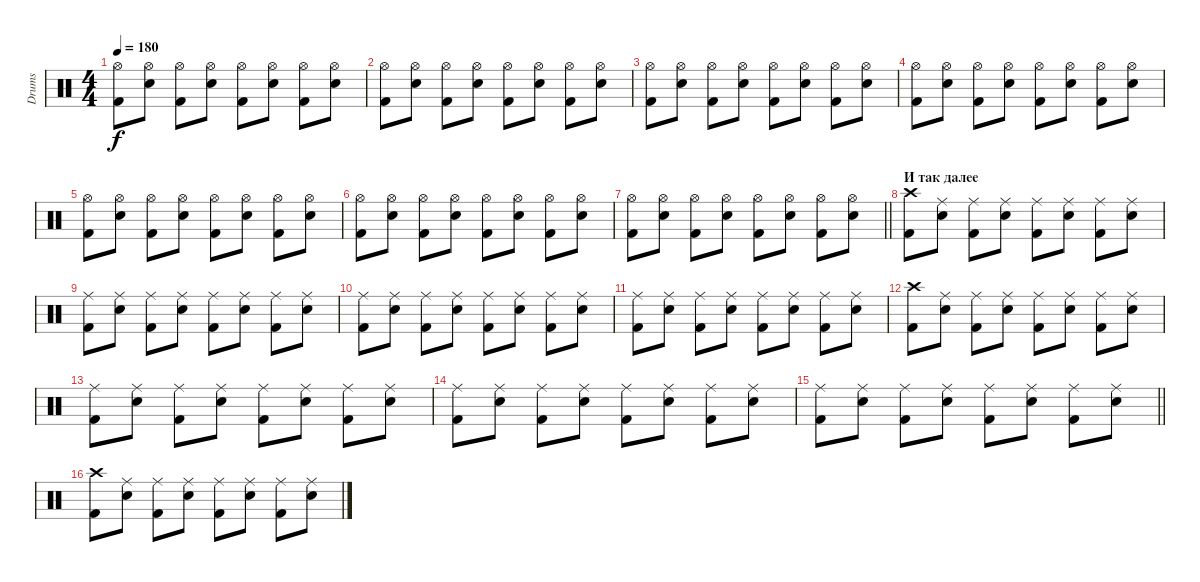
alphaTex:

\track ("Drums" "Drums") {instrument percussion}
\staff {score}
\articulation defaults
\ts (4 4)
\tempo 180
\clef neutral
\ks c
("Hi-Hat (open)" "Kick (hit) 2").8{dy f} ("Hi-Hat (open)" "Snare (hit) 2").8 ("Hi-Hat (open)" "Kick (hit) 2").8 ("Hi-Hat (open)" "Snare (hit) 2").8 ("Hi-Hat (open)" "Kick (hit) 2").8 ("Hi-Hat (open)" "Snare (hit) 2").8 ("Hi-Hat (open)" "Kick (hit) 2").8 ("Hi-Hat (open)" "Snare (hit) 2").8 |
("Hi-Hat (open)" "Kick (hit) 2").8 ("Hi-Hat (open)" "Snare (hit) 2").8 ("Hi-Hat (open)" "Kick (hit) 2").8 ("Hi-Hat (open)" "Snare (hit) 2").8 ("Hi-Hat (open)" "Kick (hit) 2").8 ("Hi-Hat (open)" "Snare (hit) 2").8 ("Hi-Hat (open)" "Kick (hit) 2").8 ("Hi-Hat (open)" "Snare (hit) 2").8 |
("Hi-Hat (open)" "Kick (hit) 2").8 ("Hi-Hat (open)" "Snare (hit) 2").8 ("Hi-Hat (open)" "Kick (hit) 2").8 ("Hi-Hat (open)" "Snare (hit) 2").8 ("Hi-Hat (open)" "Kick (hit) 2").8 ("Hi-Hat (open)" "Snare (hit) 2").8 ("Hi-Hat (open)" "Kick (hit) 2").8 ("Hi-Hat (open)" "Snare (hit) 2").8 |
("Hi-Hat (open)" "Kick (hit) 2").8 ("Hi-Hat (open)" "Snare (hit) 2").8 ("Hi-Hat (open)" "Kick (hit) 2").8 ("Hi-Hat (open)" "Snare (hit) 2").8 ("Hi-Hat (open)" "Kick (hit) 2").8 ("Hi-Hat (open)" "Snare (hit) 2").8 ("Hi-Hat (open)" "Kick (hit) 2").8 ("Hi-Hat (open)" "Snare (hit) 2").8 |
("Hi-Hat (open)" "Kick (hit) 2").8 ("Hi-Hat (open)" "Snare (hit) 2").8 ("Hi-Hat (open)" "Kick (hit) 2").8 ("Hi-Hat (open)" "Snare (hit) 2").8 ("Hi-Hat (open)" "Kick (hit) 2").8 ("Hi-Hat (open)" "Snare (hit) 2").8 ("Hi-Hat (open)" "Kick (hit) 2").8 ("Hi-Hat (open)" "Snare (hit) 2").8 |
("Hi-Hat (open)" "Kick (hit) 2").8 ("Hi-Hat (open)" "Snare (hit) 2").8 ("Hi-Hat (open)" "Kick (hit) 2").8 ("Hi-Hat (open)" "Snare (hit) 2").8 ("Hi-Hat (open)" "Kick (hit) 2").8 ("Hi-Hat (open)" "Snare (hit) 2").8 ("Hi-Hat (open)" "Kick (hit) 2").8 ("Hi-Hat (open)" "Snare (hit) 2").8 |
\barLineRight lightlight
("Hi-Hat (open)" "Kick (hit) 2").8 ("Hi-Hat (open)" "Snare (hit) 2").8 ("Hi-Hat (open)" "Kick (hit) 2").8 ("Hi-Hat (open)" "Snare (hit) 2").8 ("Hi-Hat (open)" "Kick (hit) 2").8 ("Hi-Hat (open)" "Snare (hit) 2").8 ("Hi-Hat (open)" "Kick (hit) 2").8 ("Hi-Hat (open)" "Snare (hit) 2").8 |
\section ("" "И так далее")
("Crash high (hit)" "Kick (hit) 2").8 ("Ride (middle)" "Snare (hit) 2").8 ("Ride (middle)" "Kick (hit) 2").8 ("Ride (middle)" "Snare (hit) 2").8 ("Ride (middle)" "Kick (hit) 2").8 ("Ride (middle)" "Snare (hit) 2").8 ("Ride (middle)" "Kick (hit) 2").8 ("Ride (middle)" "Snare (hit) 2").8 |
("Ride (middle)" "Kick (hit) 2").8 ("Ride (middle)" "Snare (hit) 2").8 ("Ride (middle)" "Kick (hit) 2").8 ("Ride (middle)" "Snare (hit) 2").8 ("Ride (middle)" "Kick (hit) 2").8 ("Ride (middle)" "Snare (hit) 2").8 ("Ride (middle)" "Kick (hit) 2").8 ("Ride (middle)" "Snare (hit) 2").8 |
("Ride (middle)" "Kick (hit) 2").8 ("Ride (middle)" "Snare (hit) 2").8 ("Ride (middle)" "Kick (hit) 2").8 ("Ride (middle)" "Snare (hit) 2").8 ("Ride (middle)" "Kick (hit) 2").8 ("Ride (middle)" "Snare (hit) 2").8 ("Ride (middle)" "Kick (hit) 2").8 ("Ride (middle)" "Snare (hit) 2").8 |
("Ride (middle)" "Kick (hit) 2").8 ("Ride (middle)" "Snare (hit) 2").8 ("Ride (middle)" "Kick (hit) 2").8 ("Ride (middle)" "Snare (hit) 2").8 ("Ride (middle)" "Kick (hit) 2").8 ("Ride (middle)" "Snare (hit) 2").8 ("Ride (middle)" "Kick (hit) 2").8 ("Ride (middle)" "Snare (hit) 2").8 |
("Crash high (hit)" "Kick (hit) 2").8 ("Ride (middle)" "Snare (hit) 2").8 ("Ride (middle)" "Kick (hit) 2").8 ("Ride (middle)" "Snare (hit) 2").8 ("Ride (middle)" "Kick (hit) 2").8 ("Ride (middle)" "Snare (hit) 2").8 ("Ride (middle)" "Kick (hit) 2").8 ("Ride (middle)" "Snare (hit) 2").8 |
("Ride (middle)" "Kick (hit) 2").8 ("Ride (middle)" "Snare (hit) 2").8 ("Ride (middle)" "Kick (hit) 2").8 ("Ride (middle)" "Snare (hit) 2").8 ("Ride (middle)" "Kick (hit) 2").8 ("Ride (middle)" "Snare (hit) 2").8 ("Ride (middle)" "Kick (hit) 2").8 ("Ride (middle)" "Snare (hit) 2").8 |
("Ride (middle)" "Kick (hit) 2").8 ("Ride (middle)" "Snare (hit) 2").8 ("Ride (middle)" "Kick (hit) 2").8 ("Ride (middle)" "Snare (hit) 2").8 ("Ride (middle)" "Kick (hit) 2").8 ("Ride (middle)" "Snare (hit) 2").8 ("Ride (middle)" "Kick (hit) 2").8 ("Ride (middle)" "Snare (hit) 2").8 |
\barLineRight lightlight
("Ride (middle)" "Kick (hit) 2").8 ("Ride (middle)" "Snare (hit) 2").8 ("Ride (middle)" "Kick (hit) 2").8 ("Ride (middle)" "Snare (hit) 2").8 ("Ride (middle)" "Kick (hit) 2").8 ("Ride (middle)" "Snare (hit) 2").8 ("Ride (middle)" "Kick (hit) 2").8 ("Ride (middle)" "Snare (hit) 2").8 |
("Crash high (hit)" "Kick (hit) 2").8 ("Ride (middle)" "Snare (hit) 2").8 ("Ride (middle)" "Kick (hit) 2").8 ("Ride (middle)" "Snare (hit) 2").8 ("Ride (middle)" "Kick (hit) 2").8 ("Ride (middle)" "Snare (hit) 2").8 ("Ride (middle)" "Kick (hit) 2").8 ("Ride (middle)" "Snare (hit) 2").8
